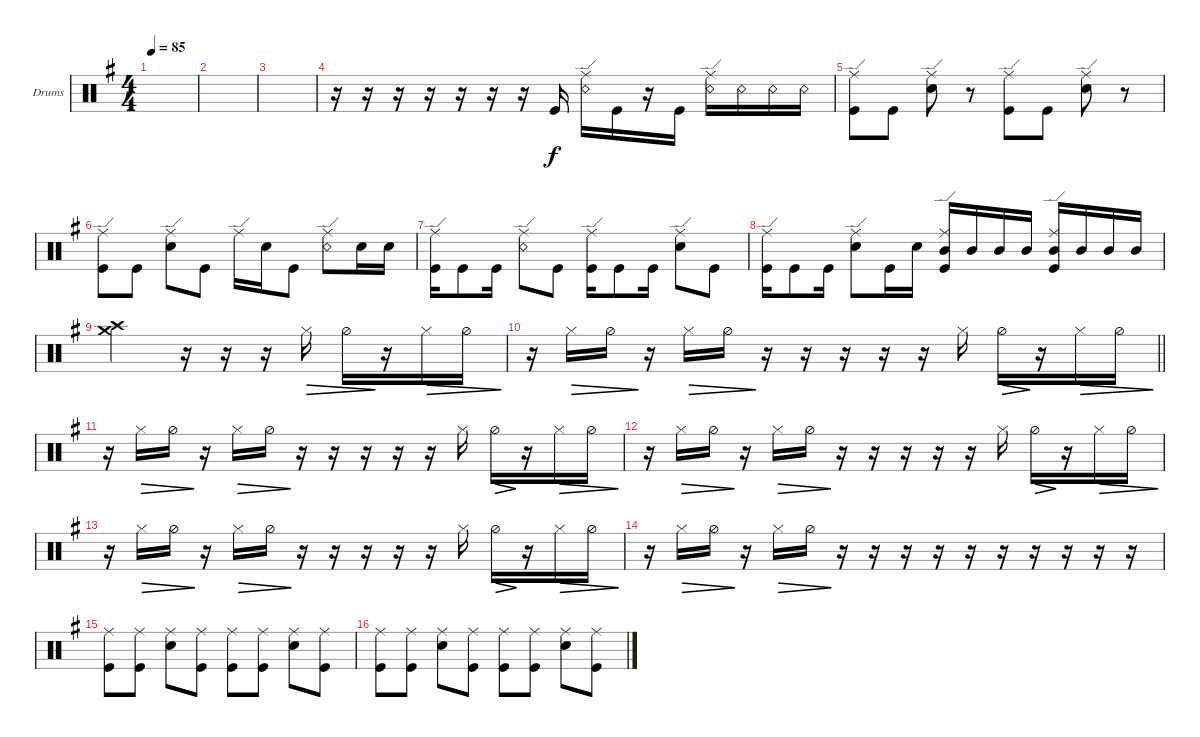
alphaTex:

\bracketExtendMode groupsimilarinstruments
\firstSystemTrackNameOrientation horizontal
\otherSystemsTrackNameOrientation horizontal
\track ("Drumkit" "Drums") {instrument percussion}
\staff {score}
\articulation defaults
\ts (4 4)
\beaming (8 2 2 2 2)
\tempo 85
\clef neutral
\scale
0.472222
\ks eminor
|
\scale
0.263889 |
\scale
0.263889 |
\scale
0.333333 r.16 r.16 r.16 r.16 r.16 r.16 r.16 "Kick (hit)".16 ("Snare (rim shot)" "Ride (edge)").16 "Kick (hit)".16 r.16 "Kick (hit)".16 ("Snare (rim shot)" "Ride (edge)").16 "Snare (rim shot)".16 "Snare (rim shot)".16 "Snare (rim shot)".16 |
\scale
0.333333 ("Kick (hit)" "Ride (edge)").8 "Kick (hit)".8 ("Snare (hit) 2" "Ride (edge)").8 r.8 ("Kick (hit)" "Ride (edge)").8 "Kick (hit)".8 ("Snare (hit) 2" "Ride (edge)").8 r.8 |
\scale
0.333333 ("Kick (hit)" "Ride (edge)").8 "Kick (hit)".8 ("Snare (hit) 2" "Ride (edge)").8 "Kick (hit)".8 "Ride (edge)".16 "Snare (hit) 2".16 "Kick (hit)".8 ("Snare (rim shot)" "Ride (edge)").8 "Snare (hit) 2".16 "Snare (hit) 2".16 |
\scale
0.333333 ("Kick (hit)" "Ride (edge)").16 "Kick (hit)".8 "Kick (hit)".16 ("Snare (rim shot)" "Ride (edge)").8 "Kick (hit)".8 ("Kick (hit)" "Ride (edge)").16 "Kick (hit)".8 "Kick (hit)".16 ("Snare (hit) 2" "Ride (edge)").8 "Kick (hit)".8 |
\scale
0.333333 ("Kick (hit)" "Ride (edge)").16 "Kick (hit)".8 "Kick (hit)".16 ("Snare (hit) 2" "Ride (edge)").8 "Kick (hit)".16 "Snare (hit) 2".16 ("Mid Tom (hit)" "Kick (hit)" "Ride (edge)").16 "Mid Tom (hit)".16 "Mid Tom (hit)".16 "Mid Tom (hit)".16 ("Mid Tom (hit)" "Kick (hit)" "Ride (edge)").16 "Mid Tom (hit)".16 "Mid Tom (hit)".16 "Mid Tom (hit)".16 |
\scale
0.333333 ("Crash medium (hit)" "Crash high (hit)").2 r.16 r.16 r.16 "Hi-Hat (closed)".16{dec} "Hi-Hat (half)".16{dec} r.16 "Hi-Hat (closed)".16{dec} "Hi-Hat (half)".16{dec} |
\scale
0.333333
\barLineRight lightlight
r.16 "Hi-Hat (closed)".16{dec} "Hi-Hat (half)".16{dec} r.16 "Hi-Hat (closed)".16{dec} "Hi-Hat (half)".16{dec} r.16 r.16 r.16 r.16 r.16 "Hi-Hat (closed)".16 "Hi-Hat (half)".16{dec} r.16 "Hi-Hat (closed)".16{dec} "Hi-Hat (half)".16{dec} |
\scale
0.333333 r.16 "Hi-Hat (closed)".16{dec} "Hi-Hat (half)".16{dec} r.16 "Hi-Hat (closed)".16{dec} "Hi-Hat (half)".16{dec} r.16 r.16 r.16 r.16 r.16 "Hi-Hat (closed)".16 "Hi-Hat (half)".16{dec} r.16 "Hi-Hat (closed)".16{dec} "Hi-Hat (half)".16{dec} |
\scale
0.333333 r.16 "Hi-Hat (closed)".16{dec} "Hi-Hat (half)".16{dec} r.16 "Hi-Hat (closed)".16{dec} "Hi-Hat (half)".16{dec} r.16 r.16 r.16 r.16 r.16 "Hi-Hat (closed)".16 "Hi-Hat (half)".16{dec} r.16 "Hi-Hat (closed)".16{dec} "Hi-Hat (half)".16{dec} |
\scale
0.333333 r.16 "Hi-Hat (closed)".16{dec} "Hi-Hat (half)".16{dec} r.16 "Hi-Hat (closed)".16{dec} "Hi-Hat (half)".16{dec} r.16 r.16 r.16 r.16 r.16 "Hi-Hat (closed)".16 "Hi-Hat (half)".16{dec} r.16 "Hi-Hat (closed)".16{dec} "Hi-Hat (half)".16{dec} |
\scale
0.333333 r.16 "Hi-Hat (closed)".16{dec} "Hi-Hat (half)".16{dec} r.16 "Hi-Hat (closed)".16{dec} "Hi-Hat (half)".16{dec} r.16 r.16 r.16 r.16 r.16 r.16 r.16 r.16 r.16 r.16 |
\scale
0.333333 ("Kick (hit)" "Ride (middle)").8 ("Kick (hit)" "Ride (middle)").8 ("Snare (hit) 2" "Ride (middle)").8 ("Kick (hit)" "Ride (middle)").8 ("Kick (hit)" "Ride (middle)").8 ("Kick (hit)" "Ride (middle)").8 ("Snare (hit) 2" "Ride (middle)").8 ("Kick (hit)" "Ride (middle)").8 |
\scale
0.333333 ("Kick (hit)" "Ride (middle)").8 ("Kick (hit)" "Ride (middle)").8 ("Snare (hit) 2" "Ride (middle)").8 ("Kick (hit)" "Ride (middle)").8 ("Kick (hit)" "Ride (middle)").8 ("Kick (hit)" "Ride (middle)").8 ("Snare (hit) 2" "Ride (middle)").8 ("Kick (hit)" "Ride (middle)").8
